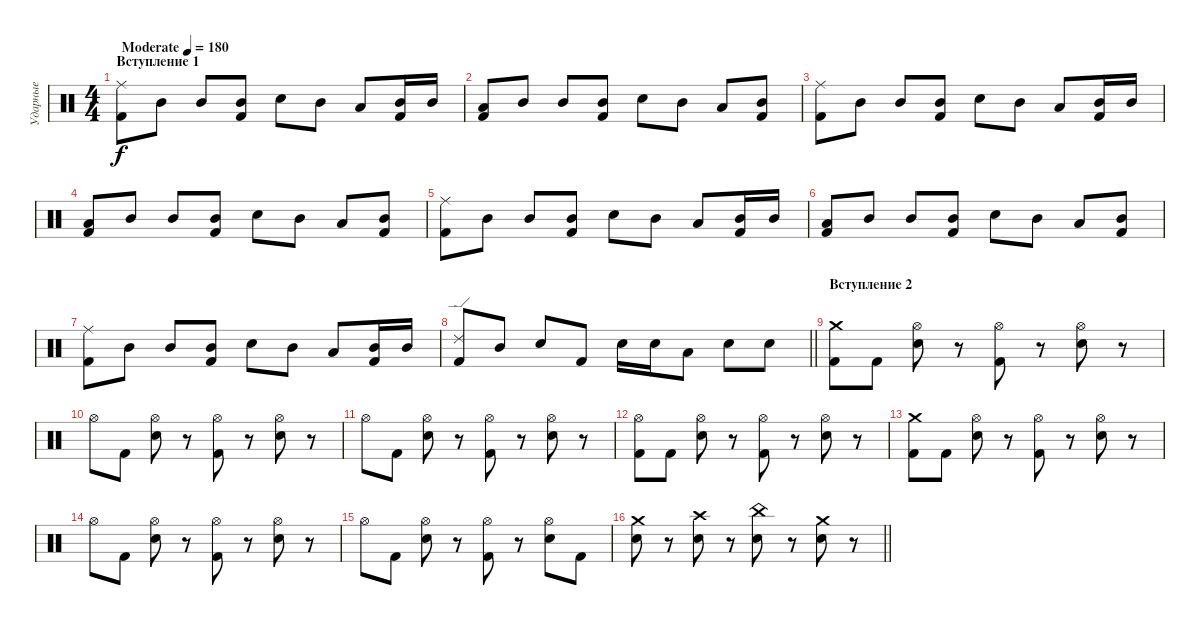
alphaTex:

\track ("Ударные" "Ударные") {instrument percussion}
\staff {score}
\articulation defaults
\ts (4 4)
\section ("" "Вступление 1")
\tempo (180 "Moderate")
\clef neutral
\ks c
("Ride (middle)" "Kick (hit) 2").8{dy f} "Mid Tom (hit)".8 "Mid Tom (hit)".8 ("Mid Tom (hit)" "Kick (hit) 2").8 "Snare (hit) 2".8 "Mid Tom (hit)".8 "Low Tom (hit)".8 ("Mid Tom (hit)" "Kick (hit) 2").16 "Mid Tom (hit)".16 |
("Low Tom (hit)" "Kick (hit) 2").8 "Mid Tom (hit)".8 "Mid Tom (hit)".8 ("Mid Tom (hit)" "Kick (hit) 2").8 "Snare (hit) 2".8 "Mid Tom (hit)".8 "Low Tom (hit)".8 ("Mid Tom (hit)" "Kick (hit) 2").8 |
("Ride (middle)" "Kick (hit) 2").8 "Mid Tom (hit)".8 "Mid Tom (hit)".8 ("Mid Tom (hit)" "Kick (hit) 2").8 "Snare (hit) 2".8 "Mid Tom (hit)".8 "Low Tom (hit)".8 ("Mid Tom (hit)" "Kick (hit) 2").16 "Mid Tom (hit)".16 |
("Low Tom (hit)" "Kick (hit) 2").8 "Mid Tom (hit)".8 "Mid Tom (hit)".8 ("Mid Tom (hit)" "Kick (hit) 2").8 "Snare (hit) 2".8 "Mid Tom (hit)".8 "Low Tom (hit)".8 ("Mid Tom (hit)" "Kick (hit) 2").8 |
("Ride (middle)" "Kick (hit) 2").8 "Mid Tom (hit)".8 "Mid Tom (hit)".8 ("Mid Tom (hit)" "Kick (hit) 2").8 "Snare (hit) 2".8 "Mid Tom (hit)".8 "Low Tom (hit)".8 ("Mid Tom (hit)" "Kick (hit) 2").16 "Mid Tom (hit)".16 |
("Low Tom (hit)" "Kick (hit) 2").8 "Mid Tom (hit)".8 "Mid Tom (hit)".8 ("Mid Tom (hit)" "Kick (hit) 2").8 "Snare (hit) 2".8 "Mid Tom (hit)".8 "Low Tom (hit)".8 ("Mid Tom (hit)" "Kick (hit) 2").8 |
("Ride (middle)" "Kick (hit) 2").8 "Mid Tom (hit)".8 "Mid Tom (hit)".8 ("Mid Tom (hit)" "Kick (hit) 2").8 "Snare (hit) 2".8 "Mid Tom (hit)".8 "Low Tom (hit)".8 ("Mid Tom (hit)" "Kick (hit) 2").16 "Mid Tom (hit)".16 |
\barLineRight lightlight
("Ride (edge) 2" "Kick (hit) 2").8 "Mid Tom (hit)".8 "Snare (hit) 2".8 "Kick (hit) 2".8 "Snare (hit) 2".16 "Snare (hit) 2".16 "Low Tom (hit)".8 "Snare (hit) 2".8 "Snare (hit) 2".8 |
\section ("" "Вступление 2")
("Crash medium (hit)" "Kick (hit) 2").8 "Kick (hit) 2".8 ("Hi-Hat (open)" "Snare (hit) 2").8 r.8 ("Hi-Hat (open)" "Kick (hit) 2").8 r.8 ("Hi-Hat (open)" "Snare (hit) 2").8 r.8 |
"Hi-Hat (open)".8 "Kick (hit) 2".8 ("Hi-Hat (open)" "Snare (hit) 2").8 r.8 ("Hi-Hat (open)" "Kick (hit) 2").8 r.8 ("Hi-Hat (open)" "Snare (hit) 2").8 r.8 |
"Hi-Hat (open)".8 "Kick (hit) 2".8 ("Hi-Hat (open)" "Snare (hit) 2").8 r.8 ("Hi-Hat (open)" "Kick (hit) 2").8 r.8 ("Hi-Hat (open)" "Snare (hit) 2").8 r.8 |
("Hi-Hat (open)" "Kick (hit) 2").8 "Kick (hit) 2".8 ("Hi-Hat (open)" "Snare (hit) 2").8 r.8 ("Hi-Hat (open)" "Kick (hit) 2").8 r.8 ("Hi-Hat (open)" "Snare (hit) 2").8 r.8 |
("Crash medium (hit)" "Kick (hit) 2").8 "Kick (hit) 2".8 ("Hi-Hat (open)" "Snare (hit) 2").8 r.8 ("Hi-Hat (open)" "Kick (hit) 2").8 r.8 ("Hi-Hat (open)" "Snare (hit) 2").8 r.8 |
"Hi-Hat (open)".8 "Kick (hit) 2".8 ("Hi-Hat (open)" "Snare (hit) 2").8 r.8 ("Hi-Hat (open)" "Kick (hit) 2").8 r.8 ("Hi-Hat (open)" "Snare (hit) 2").8 r.8 |
"Hi-Hat (open)".8 "Kick (hit) 2".8 ("Hi-Hat (open)" "Snare (hit) 2").8 r.8 ("Hi-Hat (open)" "Kick (hit) 2").8 r.8 ("Hi-Hat (open)" "Snare (hit) 2").8 "Kick (hit) 2".8 |
\barLineRight lightlight
("Crash medium (hit)" "Snare (hit) 2").8 r.8 ("Crash high (hit)" "Snare (hit) 2").8 r.8 ("China (hit)" "Snare (hit) 2").8 r.8 ("Crash medium (hit)" "Snare (hit) 2").8 r.8
